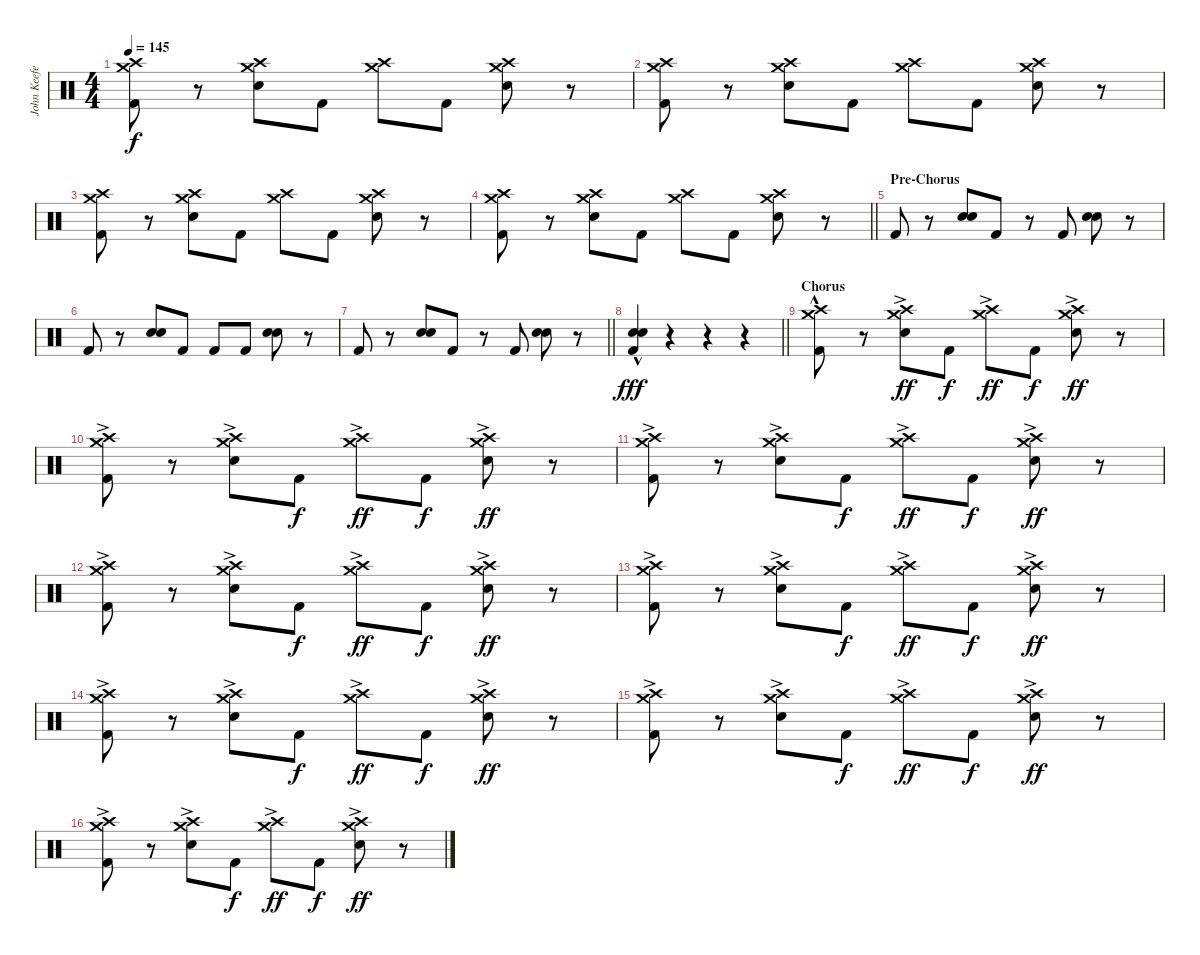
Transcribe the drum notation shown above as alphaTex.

\track ("John Keefe (Percussion)" "John Keefe") {instrument percussion}
\staff {score}
\articulation defaults
\ts (4 4)
\tempo 145
\clef neutral
\ks c
("Crash high (hit)" "Crash medium (hit)" "Kick (hit) 2").8{dy f} r.8 ("Crash high (hit)" "Crash medium (hit)" "Electric Snare (hit)").8 "Kick (hit) 2".8 ("Crash high (hit)" "Crash medium (hit)").8 "Kick (hit) 2".8 ("Crash high (hit)" "Crash medium (hit)" "Electric Snare (hit)").8 r.8 |
("Crash high (hit)" "Crash medium (hit)" "Kick (hit) 2").8 r.8 ("Crash high (hit)" "Crash medium (hit)" "Electric Snare (hit)").8 "Kick (hit) 2".8 ("Crash high (hit)" "Crash medium (hit)").8 "Kick (hit) 2".8 ("Crash high (hit)" "Crash medium (hit)" "Electric Snare (hit)").8 r.8 |
("Crash high (hit)" "Crash medium (hit)" "Kick (hit) 2").8 r.8 ("Crash high (hit)" "Crash medium (hit)" "Electric Snare (hit)").8 "Kick (hit) 2".8 ("Crash high (hit)" "Crash medium (hit)").8 "Kick (hit) 2".8 ("Crash high (hit)" "Crash medium (hit)" "Electric Snare (hit)").8 r.8 |
\barLineRight lightlight
("Crash high (hit)" "Crash medium (hit)" "Kick (hit) 2").8 r.8 ("Crash high (hit)" "Crash medium (hit)" "Electric Snare (hit)").8 "Kick (hit) 2".8 ("Crash high (hit)" "Crash medium (hit)").8 "Kick (hit) 2".8 ("Crash high (hit)" "Crash medium (hit)" "Electric Snare (hit)").8 r.8 |
\section ("" "Pre-Chorus")
"Kick (hit) 2".8 r.8 ("Snare (hit) 2" "Electric Snare (hit)").8 "Kick (hit) 2".8 r.8 "Kick (hit) 2".8 ("Snare (hit) 2" "Electric Snare (hit)").8 r.8 |
"Kick (hit) 2".8 r.8 ("Snare (hit) 2" "Electric Snare (hit)").8 "Kick (hit) 2".8 "Kick (hit) 2".8 "Kick (hit) 2".8 ("Snare (hit) 2" "Electric Snare (hit)").8 r.8 |
\barLineRight lightlight "Kick (hit) 2".8
r.8 ("Snare (hit) 2" "Electric Snare (hit)").8 "Kick (hit) 2".8 r.8 "Kick (hit) 2".8 ("Snare (hit) 2" "Electric Snare (hit)").8 r.8 |
\barLineRight lightlight
("Snare (hit) 2" "Kick (hit) 2" "Electric Snare (hit)"{hac}).4{dy fff} r.4 r.4 r.4 |
\section ("" "Chorus")
("Crash high (hit)"{hac} "Crash medium (hit)"{hac} "Kick (hit) 2"{hac}).8 r.8 ("Crash high (hit)"{ac} "Crash medium (hit)"{ac} "Electric Snare (hit)").8{dy ff} "Kick (hit) 2".8{dy f} ("Crash high (hit)"{ac} "Crash medium (hit)"{ac}).8{dy ff} "Kick (hit) 2".8{dy f} ("Crash high (hit)"{ac} "Crash medium (hit)"{ac} "Electric Snare (hit)").8{dy ff} r.8 |
("Crash high (hit)"{ac} "Crash medium (hit)"{ac} "Kick (hit) 2").8 r.8 ("Crash high (hit)"{ac} "Crash medium (hit)"{ac} "Electric Snare (hit)").8 "Kick (hit) 2".8{dy f} ("Crash high (hit)"{ac} "Crash medium (hit)"{ac}).8{dy ff} "Kick (hit) 2".8{dy f} ("Crash high (hit)"{ac} "Crash medium (hit)"{ac} "Electric Snare (hit)").8{dy ff} r.8 |
("Crash high (hit)"{ac} "Crash medium (hit)"{ac} "Kick (hit) 2").8 r.8 ("Crash high (hit)"{ac} "Crash medium (hit)"{ac} "Electric Snare (hit)").8 "Kick (hit) 2".8{dy f} ("Crash high (hit)"{ac} "Crash medium (hit)"{ac}).8{dy ff} "Kick (hit) 2".8{dy f} ("Crash high (hit)"{ac} "Crash medium (hit)"{ac} "Electric Snare (hit)").8{dy ff} r.8 |
("Crash high (hit)"{ac} "Crash medium (hit)"{ac} "Kick (hit) 2").8 r.8 ("Crash high (hit)"{ac} "Crash medium (hit)"{ac} "Electric Snare (hit)").8 "Kick (hit) 2".8{dy f} ("Crash high (hit)"{ac} "Crash medium (hit)"{ac}).8{dy ff} "Kick (hit) 2".8{dy f} ("Crash high (hit)"{ac} "Crash medium (hit)"{ac} "Electric Snare (hit)").8{dy ff} r.8 |
("Crash high (hit)"{ac} "Crash medium (hit)"{ac} "Kick (hit) 2").8 r.8 ("Crash high (hit)"{ac} "Crash medium (hit)"{ac} "Electric Snare (hit)").8 "Kick (hit) 2".8{dy f} ("Crash high (hit)"{ac} "Crash medium (hit)"{ac}).8{dy ff} "Kick (hit) 2".8{dy f} ("Crash high (hit)"{ac} "Crash medium (hit)"{ac} "Electric Snare (hit)").8{dy ff} r.8 |
("Crash high (hit)"{ac} "Crash medium (hit)"{ac} "Kick (hit) 2").8 r.8 ("Crash high (hit)"{ac} "Crash medium (hit)"{ac} "Electric Snare (hit)").8 "Kick (hit) 2".8{dy f} ("Crash high (hit)"{ac} "Crash medium (hit)"{ac}).8{dy ff} "Kick (hit) 2".8{dy f} ("Crash high (hit)"{ac} "Crash medium (hit)"{ac} "Electric Snare (hit)").8{dy ff} r.8 |
("Crash high (hit)"{ac} "Crash medium (hit)"{ac} "Kick (hit) 2").8 r.8 ("Crash high (hit)"{ac} "Crash medium (hit)"{ac} "Electric Snare (hit)").8 "Kick (hit) 2".8{dy f} ("Crash high (hit)"{ac} "Crash medium (hit)"{ac}).8{dy ff} "Kick (hit) 2".8{dy f} ("Crash high (hit)"{ac} "Crash medium (hit)"{ac} "Electric Snare (hit)").8{dy ff} r.8 |
("Crash high (hit)"{ac} "Crash medium (hit)"{ac} "Kick (hit) 2").8 r.8 ("Crash high (hit)"{ac} "Crash medium (hit)"{ac} "Electric Snare (hit)").8 "Kick (hit) 2".8{dy f} ("Crash high (hit)"{ac} "Crash medium (hit)"{ac}).8{dy ff} "Kick (hit) 2".8{dy f} ("Crash high (hit)"{ac} "Crash medium (hit)"{ac} "Electric Snare (hit)").8{dy ff} r.8
